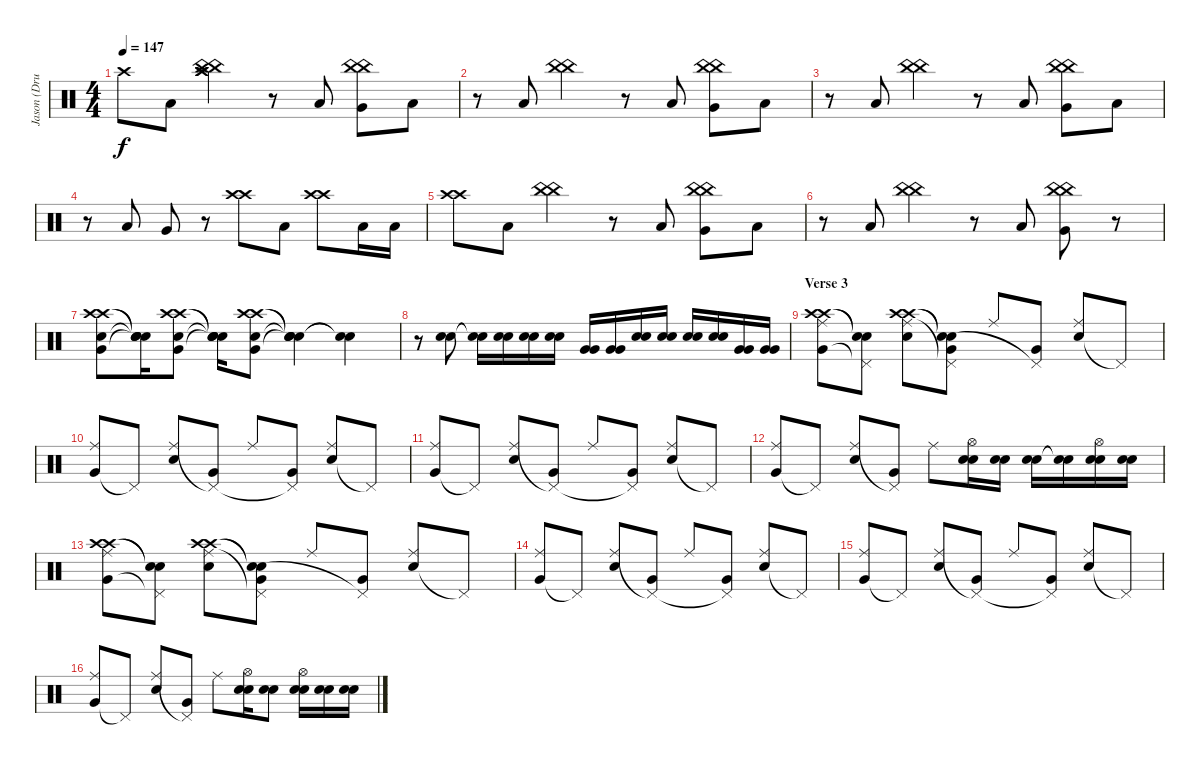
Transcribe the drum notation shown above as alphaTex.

\track ("Jason (Drums)" "Jason (Dru") {instrument percussion}
\staff {score}
\articulation defaults
\ts (4 4)
\tempo 147
\clef neutral
\ks c "Crash high (hit)".8{dy f} "Low Tom (hit)".8
("China (hit)" "China (hit)" "Crash high (hit)" "Crash high (hit)").4 r.8 "Low Tom (hit)".8 ("China (hit)" "China (hit)" "Very Low Tom (hit)").8 "Low Floor Tom (hit)".8 |
r.8 "Low Tom (hit)".8 ("China (hit)" "China (hit)").4 r.8 "Low Tom (hit)".8 ("China (hit)" "China (hit)" "Very Low Tom (hit)").8 "Low Floor Tom (hit)".8 |
r.8 "Low Tom (hit)".8 ("China (hit)" "China (hit)").4 r.8 "Low Tom (hit)".8 ("China (hit)" "China (hit)" "Very Low Tom (hit)").8 "Low Floor Tom (hit)".8 |
r.8 "Low Tom (hit)".8 "Very Low Tom (hit)".8 r.8 ("Crash high (hit)" "Crash high (hit)").8 "Low Tom (hit)".8 ("Crash high (hit)" "Crash high (hit)").8 "Low Tom (hit)".16 "Low Tom (hit)".16 |
("Crash high (hit)" "Crash high (hit)").8 "Low Tom (hit)".8 ("China (hit)" "China (hit)").4 r.8 "Low Tom (hit)".8 ("China (hit)" "China (hit)" "Very Low Tom (hit)").8 "Low Floor Tom (hit)".8 |
r.8 "Low Tom (hit)".8 ("China (hit)" "China (hit)").4 r.8 "Low Tom (hit)".8 ("China (hit)" "China (hit)" "Very Low Tom (hit)").8 r.8 |
("Crash high (hit)" "Crash high (hit)" "Very Low Tom (hit)" "Electric Snare (hit)").8 ("Snare (hit)"{t} "Snare (hit)"{t} "Snare (hit)"{t} "Snare (hit)"{t}).16 ("Crash high (hit)" "Crash high (hit)" "Very Low Tom (hit)" "Electric Snare (hit)").8 ("Snare (hit)"{t} "Snare (hit)"{t} "Snare (hit)"{t} "Snare (hit)"{t}).16 ("Crash high (hit)" "Crash high (hit)" "Very Low Tom (hit)" "Electric Snare (hit)").8 ("Snare (hit)"{t} "Snare (hit)"{t} "Snare (hit)"{t} "Snare (hit)"{t}).4 ("Snare (hit)"{t} "Snare (hit)"{t}).4 |
\section ("" "")
r.8 ("Snare (hit) 2" "Electric Snare (hit)").8 ("Electric Snare (hit)"{t} "Electric Snare (hit)"{t}).16 ("Snare (hit) 2" "Electric Snare (hit)").16 ("Snare (hit) 2" "Electric Snare (hit)").16 ("Snare (hit) 2" "Electric Snare (hit)").16 ("Very Low Tom (hit)" "Very Low Tom (hit)").16 ("Very Low Tom (hit)" "Very Low Tom (hit)").16 ("Snare (hit) 2" "Electric Snare (hit)").16 ("Snare (hit) 2" "Electric Snare (hit)").16 ("Snare (hit) 2" "Electric Snare (hit)").16 ("Snare (hit) 2" "Electric Snare (hit)").16 ("Very Low Tom (hit)" "Very Low Tom (hit)").16 ("Very Low Tom (hit)" "Very Low Tom (hit)").16 |
\section ("" "Verse 3")
("Crash high (hit)" "Crash high (hit)" "Very Low Tom (hit)" "Ride (middle)").8 ("Snare (hit)"{t} "Snare (hit)"{t} "Pedal Hi-Hat (hit)"{t}).8 ("Crash high (hit)" "Crash high (hit)" "Electric Snare (hit)" "Ride (middle)").8 ("Snare (hit)"{t} "Snare (hit)"{t} "Very Low Tom (hit)" "Pedal Hi-Hat (hit)"{t}).8 "Ride (middle)".8 ("Very Low Tom (hit)" "Pedal Hi-Hat (hit)"{t}).8 ("Electric Snare (hit)" "Ride (middle)").8 "Pedal Hi-Hat (hit)"{t}.8 |
("Very Low Tom (hit)" "Ride (middle)").8 "Pedal Hi-Hat (hit)"{t}.8 ("Electric Snare (hit)" "Ride (middle)").8 ("Very Low Tom (hit)" "Pedal Hi-Hat (hit)"{t}).8 "Ride (middle)".8 ("Very Low Tom (hit)" "Pedal Hi-Hat (hit)"{t}).8 ("Electric Snare (hit)" "Ride (middle)").8 "Pedal Hi-Hat (hit)"{t}.8 |
("Very Low Tom (hit)" "Ride (middle)").8 "Pedal Hi-Hat (hit)"{t}.8 ("Electric Snare (hit)" "Ride (middle)").8 ("Very Low Tom (hit)" "Pedal Hi-Hat (hit)"{t}).8 "Ride (middle)".8 ("Very Low Tom (hit)" "Pedal Hi-Hat (hit)"{t}).8 ("Electric Snare (hit)" "Ride (middle)").8 "Pedal Hi-Hat (hit)"{t}.8 |
("Very Low Tom (hit)" "Ride (middle)").8 "Pedal Hi-Hat (hit)"{t}.8 ("Electric Snare (hit)" "Ride (middle)").8 ("Very Low Tom (hit)" "Pedal Hi-Hat (hit)"{t}).8 "Ride (middle)".8 ("Hi-Hat (open)" "Snare (hit) 2" "Electric Snare (hit)").16 ("Snare (hit) 2" "Electric Snare (hit)").16 ("Snare (hit) 2" "Electric Snare (hit)").16 ("Electric Snare (hit)"{t} "Electric Snare (hit)"{t}).16 ("Hi-Hat (open)" "Snare (hit) 2" "Electric Snare (hit)").16 ("Snare (hit) 2" "Electric Snare (hit)").16 |
("Crash high (hit)" "Crash high (hit)" "Very Low Tom (hit)" "Ride (middle)").8 ("Snare (hit)"{t} "Snare (hit)"{t} "Pedal Hi-Hat (hit)"{t}).8 ("Crash high (hit)" "Crash high (hit)" "Electric Snare (hit)" "Ride (middle)").8 ("Snare (hit)"{t} "Snare (hit)"{t} "Very Low Tom (hit)" "Pedal Hi-Hat (hit)"{t}).8 "Ride (middle)".8 ("Very Low Tom (hit)" "Pedal Hi-Hat (hit)"{t}).8 ("Electric Snare (hit)" "Ride (middle)").8 "Pedal Hi-Hat (hit)"{t}.8 |
("Very Low Tom (hit)" "Ride (middle)").8 "Pedal Hi-Hat (hit)"{t}.8 ("Electric Snare (hit)" "Ride (middle)").8 ("Very Low Tom (hit)" "Pedal Hi-Hat (hit)"{t}).8 "Ride (middle)".8 ("Very Low Tom (hit)" "Pedal Hi-Hat (hit)"{t}).8 ("Electric Snare (hit)" "Ride (middle)").8 "Pedal Hi-Hat (hit)"{t}.8 |
("Very Low Tom (hit)" "Ride (middle)").8 "Pedal Hi-Hat (hit)"{t}.8 ("Electric Snare (hit)" "Ride (middle)").8 ("Very Low Tom (hit)" "Pedal Hi-Hat (hit)"{t}).8 "Ride (middle)".8 ("Very Low Tom (hit)" "Pedal Hi-Hat (hit)"{t}).8 ("Electric Snare (hit)" "Ride (middle)").8 "Pedal Hi-Hat (hit)"{t}.8 |
("Very Low Tom (hit)" "Ride (middle)").8 "Pedal Hi-Hat (hit)"{t}.8 ("Electric Snare (hit)" "Ride (middle)").8 ("Very Low Tom (hit)" "Pedal Hi-Hat (hit)"{t}).8 "Ride (middle)".8 ("Hi-Hat (open)" "Snare (hit) 2" "Electric Snare (hit)").16 ("Snare (hit) 2" "Electric Snare (hit)").8 ("Hi-Hat (open)" "Snare (hit) 2" "Electric Snare (hit)").16 ("Snare (hit) 2" "Electric Snare (hit)").16 ("Snare (hit) 2" "Electric Snare (hit)").16
